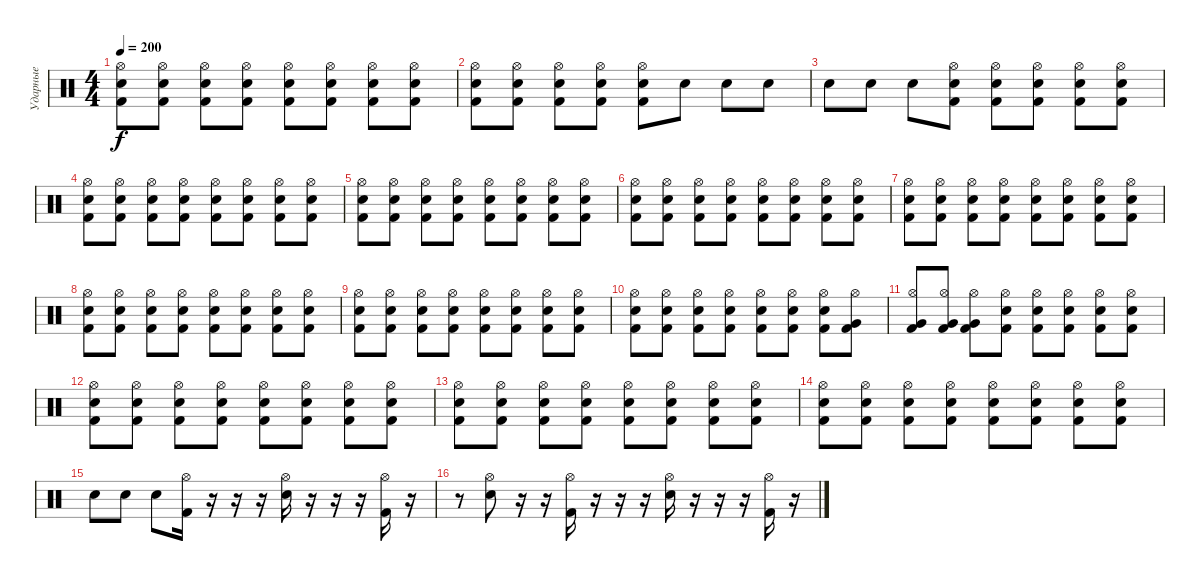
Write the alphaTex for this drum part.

\track ("Ударные" "Ударные") {instrument percussion}
\staff {score}
\articulation defaults
\ts (4 4)
\tempo 200
\clef neutral
\ks c
("Kick (hit) 2" "Electric Snare (hit)" "Hi-Hat (open)").8{dy f} ("Hi-Hat (open)" "Kick (hit) 2" "Electric Snare (hit)").8 ("Electric Snare (hit)" "Kick (hit) 2" "Hi-Hat (open)").8 ("Hi-Hat (open)" "Kick (hit) 2" "Electric Snare (hit)").8 ("Electric Snare (hit)" "Kick (hit) 2" "Hi-Hat (open)").8 ("Hi-Hat (open)" "Kick (hit) 2" "Electric Snare (hit)").8 ("Electric Snare (hit)" "Kick (hit) 2" "Hi-Hat (open)").8 ("Hi-Hat (open)" "Kick (hit) 2" "Electric Snare (hit)").8 |
("Kick (hit) 2" "Electric Snare (hit)" "Hi-Hat (open)").8 ("Hi-Hat (open)" "Kick (hit) 2" "Electric Snare (hit)").8 ("Electric Snare (hit)" "Kick (hit) 2" "Hi-Hat (open)").8 ("Hi-Hat (open)" "Kick (hit) 2" "Electric Snare (hit)").8 ("Electric Snare (hit)" "Kick (hit) 2" "Hi-Hat (open)").8 "Electric Snare (hit)".8 "Electric Snare (hit)".8 "Electric Snare (hit)".8 |
"Electric Snare (hit)".8 "Electric Snare (hit)".8 "Electric Snare (hit)".8 ("Hi-Hat (open)" "Kick (hit) 2" "Electric Snare (hit)").8 ("Electric Snare (hit)" "Kick (hit) 2" "Hi-Hat (open)").8 ("Hi-Hat (open)" "Kick (hit) 2" "Electric Snare (hit)").8 ("Electric Snare (hit)" "Kick (hit) 2" "Hi-Hat (open)").8 ("Hi-Hat (open)" "Kick (hit) 2" "Electric Snare (hit)").8 |
("Kick (hit) 2" "Electric Snare (hit)" "Hi-Hat (open)").8 ("Hi-Hat (open)" "Kick (hit) 2" "Electric Snare (hit)").8 ("Electric Snare (hit)" "Kick (hit) 2" "Hi-Hat (open)").8 ("Hi-Hat (open)" "Kick (hit) 2" "Electric Snare (hit)").8 ("Electric Snare (hit)" "Kick (hit) 2" "Hi-Hat (open)").8 ("Hi-Hat (open)" "Kick (hit) 2" "Electric Snare (hit)").8 ("Electric Snare (hit)" "Kick (hit) 2" "Hi-Hat (open)").8 ("Hi-Hat (open)" "Kick (hit) 2" "Electric Snare (hit)").8 |
("Kick (hit) 2" "Electric Snare (hit)" "Hi-Hat (open)").8 ("Hi-Hat (open)" "Kick (hit) 2" "Electric Snare (hit)").8 ("Electric Snare (hit)" "Kick (hit) 2" "Hi-Hat (open)").8 ("Hi-Hat (open)" "Kick (hit) 2" "Electric Snare (hit)").8 ("Electric Snare (hit)" "Kick (hit) 2" "Hi-Hat (open)").8 ("Hi-Hat (open)" "Kick (hit) 2" "Electric Snare (hit)").8 ("Electric Snare (hit)" "Kick (hit) 2" "Hi-Hat (open)").8 ("Hi-Hat (open)" "Kick (hit) 2" "Electric Snare (hit)").8 |
("Kick (hit) 2" "Electric Snare (hit)" "Hi-Hat (open)").8 ("Hi-Hat (open)" "Kick (hit) 2" "Electric Snare (hit)").8 ("Electric Snare (hit)" "Kick (hit) 2" "Hi-Hat (open)").8 ("Hi-Hat (open)" "Kick (hit) 2" "Electric Snare (hit)").8 ("Electric Snare (hit)" "Kick (hit) 2" "Hi-Hat (open)").8 ("Hi-Hat (open)" "Kick (hit) 2" "Electric Snare (hit)").8 ("Electric Snare (hit)" "Kick (hit) 2" "Hi-Hat (open)").8 ("Hi-Hat (open)" "Kick (hit) 2" "Electric Snare (hit)").8 |
("Kick (hit) 2" "Electric Snare (hit)" "Hi-Hat (open)").8 ("Hi-Hat (open)" "Kick (hit) 2" "Electric Snare (hit)").8 ("Electric Snare (hit)" "Kick (hit) 2" "Hi-Hat (open)").8 ("Hi-Hat (open)" "Kick (hit) 2" "Electric Snare (hit)").8 ("Electric Snare (hit)" "Kick (hit) 2" "Hi-Hat (open)").8 ("Hi-Hat (open)" "Kick (hit) 2" "Electric Snare (hit)").8 ("Electric Snare (hit)" "Kick (hit) 2" "Hi-Hat (open)").8 ("Hi-Hat (open)" "Kick (hit) 2" "Electric Snare (hit)").8 |
("Kick (hit) 2" "Electric Snare (hit)" "Hi-Hat (open)").8 ("Hi-Hat (open)" "Kick (hit) 2" "Electric Snare (hit)").8 ("Electric Snare (hit)" "Kick (hit) 2" "Hi-Hat (open)").8 ("Hi-Hat (open)" "Kick (hit) 2" "Electric Snare (hit)").8 ("Electric Snare (hit)" "Kick (hit) 2" "Hi-Hat (open)").8 ("Hi-Hat (open)" "Kick (hit) 2" "Electric Snare (hit)").8 ("Electric Snare (hit)" "Kick (hit) 2" "Hi-Hat (open)").8 ("Hi-Hat (open)" "Kick (hit) 2" "Electric Snare (hit)").8 |
("Kick (hit) 2" "Electric Snare (hit)" "Hi-Hat (open)").8 ("Hi-Hat (open)" "Kick (hit) 2" "Electric Snare (hit)").8 ("Electric Snare (hit)" "Kick (hit) 2" "Hi-Hat (open)").8 ("Hi-Hat (open)" "Kick (hit) 2" "Electric Snare (hit)").8 ("Electric Snare (hit)" "Kick (hit) 2" "Hi-Hat (open)").8 ("Hi-Hat (open)" "Kick (hit) 2" "Electric Snare (hit)").8 ("Electric Snare (hit)" "Kick (hit) 2" "Hi-Hat (open)").8 ("Hi-Hat (open)" "Kick (hit) 2" "Electric Snare (hit)").8 |
("Kick (hit) 2" "Electric Snare (hit)" "Hi-Hat (open)").8 ("Hi-Hat (open)" "Kick (hit) 2" "Electric Snare (hit)").8 ("Electric Snare (hit)" "Kick (hit) 2" "Hi-Hat (open)").8 ("Hi-Hat (open)" "Kick (hit) 2" "Electric Snare (hit)").8 ("Electric Snare (hit)" "Kick (hit) 2" "Hi-Hat (open)").8 ("Hi-Hat (open)" "Kick (hit) 2" "Electric Snare (hit)").8 ("Electric Snare (hit)" "Kick (hit) 2" "Hi-Hat (open)").8 ("Very Low Tom (hit)" "Kick (hit) 2" "Hi-Hat (open)").8 |
("Kick (hit) 2" "Very Low Tom (hit)" "Hi-Hat (open)").8 ("Kick (hit) 2" "Very Low Tom (hit)" "Hi-Hat (open)").8 ("Kick (hit) 2" "Very Low Tom (hit)" "Hi-Hat (open)").8 ("Hi-Hat (open)" "Kick (hit) 2" "Electric Snare (hit)").8 ("Electric Snare (hit)" "Kick (hit) 2" "Hi-Hat (open)").8 ("Hi-Hat (open)" "Kick (hit) 2" "Electric Snare (hit)").8 ("Electric Snare (hit)" "Kick (hit) 2" "Hi-Hat (open)").8 ("Hi-Hat (open)" "Kick (hit) 2" "Electric Snare (hit)").8 |
("Kick (hit) 2" "Electric Snare (hit)" "Hi-Hat (open)").8 ("Hi-Hat (open)" "Kick (hit) 2" "Electric Snare (hit)").8 ("Electric Snare (hit)" "Kick (hit) 2" "Hi-Hat (open)").8 ("Hi-Hat (open)" "Kick (hit) 2" "Electric Snare (hit)").8 ("Electric Snare (hit)" "Kick (hit) 2" "Hi-Hat (open)").8 ("Hi-Hat (open)" "Kick (hit) 2" "Electric Snare (hit)").8 ("Electric Snare (hit)" "Kick (hit) 2" "Hi-Hat (open)").8 ("Hi-Hat (open)" "Kick (hit) 2" "Electric Snare (hit)").8 |
("Kick (hit) 2" "Electric Snare (hit)" "Hi-Hat (open)").8 ("Hi-Hat (open)" "Kick (hit) 2" "Electric Snare (hit)").8 ("Electric Snare (hit)" "Kick (hit) 2" "Hi-Hat (open)").8 ("Hi-Hat (open)" "Kick (hit) 2" "Electric Snare (hit)").8 ("Electric Snare (hit)" "Kick (hit) 2" "Hi-Hat (open)").8 ("Hi-Hat (open)" "Kick (hit) 2" "Electric Snare (hit)").8 ("Electric Snare (hit)" "Kick (hit) 2" "Hi-Hat (open)").8 ("Hi-Hat (open)" "Kick (hit) 2" "Electric Snare (hit)").8 |
("Kick (hit) 2" "Electric Snare (hit)" "Hi-Hat (open)").8 ("Hi-Hat (open)" "Kick (hit) 2" "Electric Snare (hit)").8 ("Electric Snare (hit)" "Kick (hit) 2" "Hi-Hat (open)").8 ("Hi-Hat (open)" "Kick (hit) 2" "Electric Snare (hit)").8 ("Electric Snare (hit)" "Kick (hit) 2" "Hi-Hat (open)").8 ("Hi-Hat (open)" "Kick (hit) 2" "Electric Snare (hit)").8 ("Electric Snare (hit)" "Kick (hit) 2" "Hi-Hat (open)").8 ("Hi-Hat (open)" "Kick (hit) 2" "Electric Snare (hit)").8 |
"Electric Snare (hit)".8 "Electric Snare (hit)".8 "Electric Snare (hit)".8 ("Kick (hit) 2" "Hi-Hat (open)").16 r.16 r.16 r.16 ("Electric Snare (hit)" "Hi-Hat (open)").16 r.16 r.16 r.16 ("Kick (hit) 2" "Hi-Hat (open)").16 r.16 |
r.8 ("Electric Snare (hit)" "Hi-Hat (open)").8 r.16 r.16 ("Kick (hit) 2" "Hi-Hat (open)").16 r.16 r.16 r.16 ("Electric Snare (hit)" "Hi-Hat (open)").16 r.16 r.16 r.16 ("Kick (hit) 2" "Hi-Hat (open)").16 r.16
